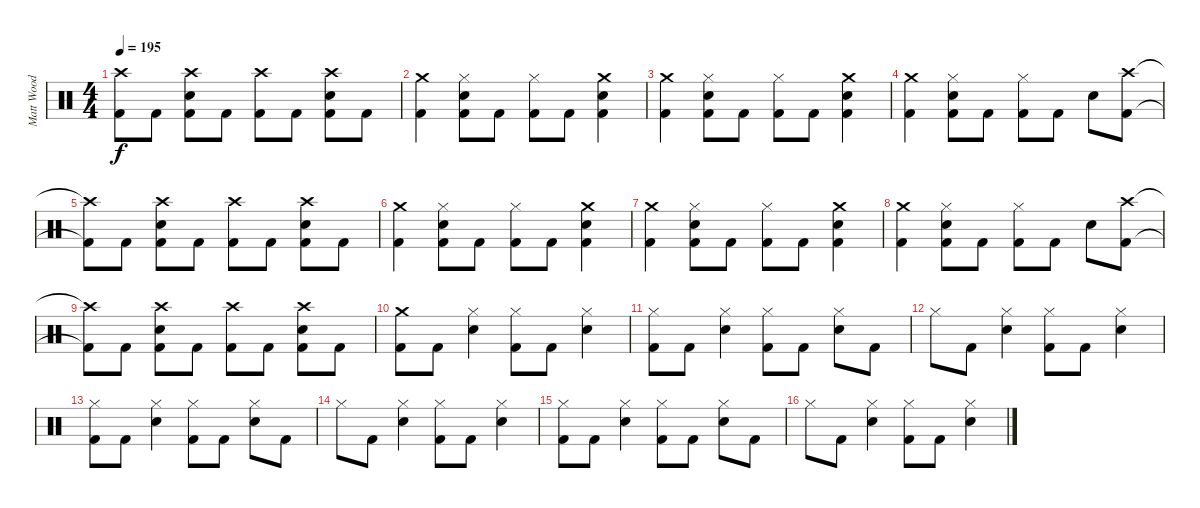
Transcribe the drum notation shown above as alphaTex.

\track ("Matt Wood" "Matt Wood") {instrument percussion}
\staff {score}
\articulation defaults
\ts (4 4)
\tempo 195
\clef neutral
\ks c
("Crash high (hit)"{t} "Kick (hit) 2"{t}).8{dy f} "Kick (hit) 2".8 ("Crash high (hit)" "Snare (hit) 2" "Kick (hit) 2").8 "Kick (hit) 2".8 ("Crash high (hit)" "Kick (hit) 2").8 "Kick (hit) 2".8 ("Crash high (hit)" "Snare (hit) 2" "Kick (hit) 2").8 "Kick (hit) 2".8 |
("Crash medium (hit)" "Kick (hit) 2").4 ("Hi-Hat (closed)" "Snare (hit) 2" "Kick (hit) 2").8 "Kick (hit) 2".8 ("Hi-Hat (closed)" "Kick (hit) 2").8 "Kick (hit) 2".8 ("Crash medium (hit)" "Snare (hit) 2" "Kick (hit) 2").4 |
("Crash medium (hit)" "Kick (hit) 2").4 ("Hi-Hat (closed)" "Snare (hit) 2" "Kick (hit) 2").8 "Kick (hit) 2".8 ("Hi-Hat (closed)" "Kick (hit) 2").8 "Kick (hit) 2".8 ("Crash medium (hit)" "Snare (hit) 2" "Kick (hit) 2").4 |
("Crash medium (hit)" "Kick (hit) 2").4 ("Hi-Hat (closed)" "Snare (hit) 2" "Kick (hit) 2").8 "Kick (hit) 2".8 ("Hi-Hat (closed)" "Kick (hit) 2").8 "Kick (hit) 2".8 "Snare (hit) 2".8 ("Crash high (hit)" "Kick (hit) 2").8 |
("Crash high (hit)"{t} "Kick (hit) 2"{t}).8 "Kick (hit) 2".8 ("Crash high (hit)" "Snare (hit) 2" "Kick (hit) 2").8 "Kick (hit) 2".8 ("Crash high (hit)" "Kick (hit) 2").8 "Kick (hit) 2".8 ("Crash high (hit)" "Snare (hit) 2" "Kick (hit) 2").8 "Kick (hit) 2".8 |
("Crash medium (hit)" "Kick (hit) 2").4 ("Hi-Hat (closed)" "Snare (hit) 2" "Kick (hit) 2").8 "Kick (hit) 2".8 ("Hi-Hat (closed)" "Kick (hit) 2").8 "Kick (hit) 2".8 ("Crash medium (hit)" "Snare (hit) 2" "Kick (hit) 2").4 |
("Crash medium (hit)" "Kick (hit) 2").4 ("Hi-Hat (closed)" "Snare (hit) 2" "Kick (hit) 2").8 "Kick (hit) 2".8 ("Hi-Hat (closed)" "Kick (hit) 2").8 "Kick (hit) 2".8 ("Crash medium (hit)" "Snare (hit) 2" "Kick (hit) 2").4 |
("Crash medium (hit)" "Kick (hit) 2").4 ("Hi-Hat (closed)" "Snare (hit) 2" "Kick (hit) 2").8 "Kick (hit) 2".8 ("Hi-Hat (closed)" "Kick (hit) 2").8 "Kick (hit) 2".8 "Snare (hit) 2".8 ("Crash high (hit)" "Kick (hit) 2").8 |
("Crash high (hit)"{t} "Kick (hit) 2"{t}).8 "Kick (hit) 2".8 ("Crash high (hit)" "Snare (hit) 2" "Kick (hit) 2").8 "Kick (hit) 2".8 ("Crash high (hit)" "Kick (hit) 2").8 "Kick (hit) 2".8 ("Crash high (hit)" "Snare (hit) 2" "Kick (hit) 2").8 "Kick (hit) 2".8 |
("Crash medium (hit)" "Kick (hit) 2").8 "Kick (hit) 2".8 ("Hi-Hat (closed)" "Snare (hit) 2").4 ("Hi-Hat (closed)" "Kick (hit) 2").8 "Kick (hit) 2".8 ("Hi-Hat (closed)" "Snare (hit) 2").4 |
("Hi-Hat (closed)" "Kick (hit) 2").8 "Kick (hit) 2".8 ("Hi-Hat (closed)" "Snare (hit) 2").4 ("Hi-Hat (closed)" "Kick (hit) 2").8 "Kick (hit) 2".8 ("Hi-Hat (closed)" "Snare (hit) 2").8 "Kick (hit) 2".8 |
"Hi-Hat (closed)".8 "Kick (hit) 2".8 ("Hi-Hat (closed)" "Snare (hit) 2").4 ("Hi-Hat (closed)" "Kick (hit) 2").8 "Kick (hit) 2".8 ("Hi-Hat (closed)" "Snare (hit) 2").4 |
("Hi-Hat (closed)" "Kick (hit) 2").8 "Kick (hit) 2".8 ("Hi-Hat (closed)" "Snare (hit) 2").4 ("Hi-Hat (closed)" "Kick (hit) 2").8 "Kick (hit) 2".8 ("Hi-Hat (closed)" "Snare (hit) 2").8 "Kick (hit) 2".8 |
"Hi-Hat (closed)".8 "Kick (hit) 2".8 ("Hi-Hat (closed)" "Snare (hit) 2").4 ("Hi-Hat (closed)" "Kick (hit) 2").8 "Kick (hit) 2".8 ("Hi-Hat (closed)" "Snare (hit) 2").4 |
("Hi-Hat (closed)" "Kick (hit) 2").8 "Kick (hit) 2".8 ("Hi-Hat (closed)" "Snare (hit) 2").4 ("Hi-Hat (closed)" "Kick (hit) 2").8 "Kick (hit) 2".8 ("Hi-Hat (closed)" "Snare (hit) 2").8 "Kick (hit) 2".8 |
"Hi-Hat (closed)".8 "Kick (hit) 2".8 ("Hi-Hat (closed)" "Snare (hit) 2").4 ("Hi-Hat (closed)" "Kick (hit) 2").8 "Kick (hit) 2".8 ("Hi-Hat (closed)" "Snare (hit) 2").4
